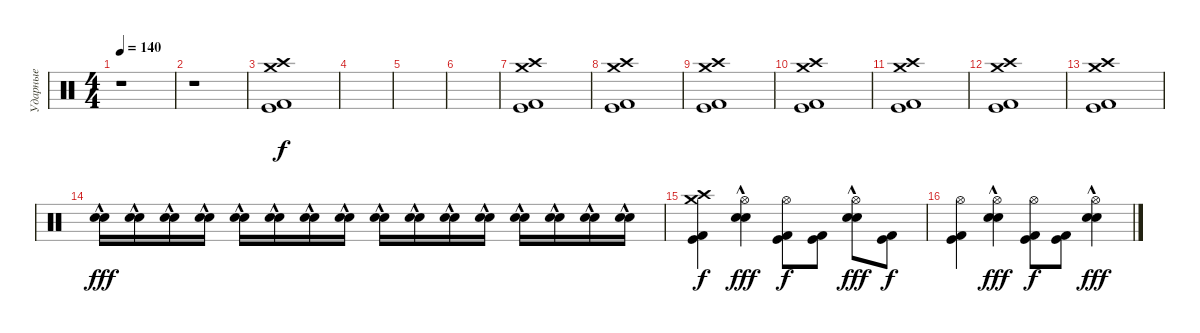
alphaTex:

\track ("Ударные" "Ударные") {instrument percussion}
\staff {score}
\articulation defaults
\ts (4 4)
\tempo 140
\clef neutral
\ks c
r.1{dy f} |
r.1 |
("Crash high (hit)" "Kick (hit)" "Kick (hit) 2" "Crash medium (hit)").1 |
|
|
|
("Crash high (hit)" "Kick (hit)" "Kick (hit) 2" "Crash medium (hit)").1 |
("Crash high (hit)" "Kick (hit)" "Kick (hit) 2" "Crash medium (hit)").1 |
("Crash high (hit)" "Kick (hit)" "Kick (hit) 2" "Crash medium (hit)").1 |
("Crash high (hit)" "Kick (hit)" "Kick (hit) 2" "Crash medium (hit)").1 |
("Crash high (hit)" "Kick (hit)" "Kick (hit) 2" "Crash medium (hit)").1 |
("Crash high (hit)" "Kick (hit)" "Kick (hit) 2" "Crash medium (hit)").1 |
("Crash high (hit)" "Kick (hit)" "Kick (hit) 2" "Crash medium (hit)").1 |
("Snare (hit) 2"{hac} "Electric Snare (hit)"{hac}).16{dy fff} ("Snare (hit) 2"{hac} "Electric Snare (hit)"{hac}).16 ("Snare (hit) 2"{hac} "Electric Snare (hit)"{hac}).16 ("Snare (hit) 2"{hac} "Electric Snare (hit)"{hac}).16 ("Snare (hit) 2"{hac} "Electric Snare (hit)"{hac}).16 ("Snare (hit) 2"{hac} "Electric Snare (hit)"{hac}).16 ("Snare (hit) 2"{hac} "Electric Snare (hit)"{hac}).16 ("Snare (hit) 2"{hac} "Electric Snare (hit)"{hac}).16 ("Snare (hit) 2"{hac} "Electric Snare (hit)"{hac}).16 ("Snare (hit) 2"{hac} "Electric Snare (hit)"{hac}).16 ("Snare (hit) 2"{hac} "Electric Snare (hit)"{hac}).16 ("Snare (hit) 2"{hac} "Electric Snare (hit)"{hac}).16 ("Snare (hit) 2"{hac} "Electric Snare (hit)"{hac}).16 ("Snare (hit) 2"{hac} "Electric Snare (hit)"{hac}).16 ("Snare (hit) 2"{hac} "Electric Snare (hit)"{hac}).16 ("Snare (hit) 2"{hac} "Electric Snare (hit)"{hac}).16 |
("Crash high (hit)" "Kick (hit)" "Kick (hit) 2" "Crash medium (hit)").4{dy f} ("Hi-Hat (open)" "Snare (hit) 2"{hac} "Electric Snare (hit)"{hac}).4{dy fff} ("Hi-Hat (open)" "Kick (hit)" "Kick (hit) 2").8{dy f} ("Kick (hit)" "Kick (hit) 2").8 ("Hi-Hat (open)" "Snare (hit) 2"{hac} "Electric Snare (hit)"{hac}).8{dy fff} ("Kick (hit)" "Kick (hit) 2").8{dy f} |
("Hi-Hat (open)" "Kick (hit)" "Kick (hit) 2").4 ("Hi-Hat (open)" "Snare (hit) 2"{hac} "Electric Snare (hit)"{hac}).4{dy fff} ("Hi-Hat (open)" "Kick (hit)" "Kick (hit) 2").8{dy f} ("Kick (hit)" "Kick (hit) 2").8 ("Hi-Hat (open)" "Snare (hit) 2"{hac} "Electric Snare (hit)"{hac}).4{dy fff}
